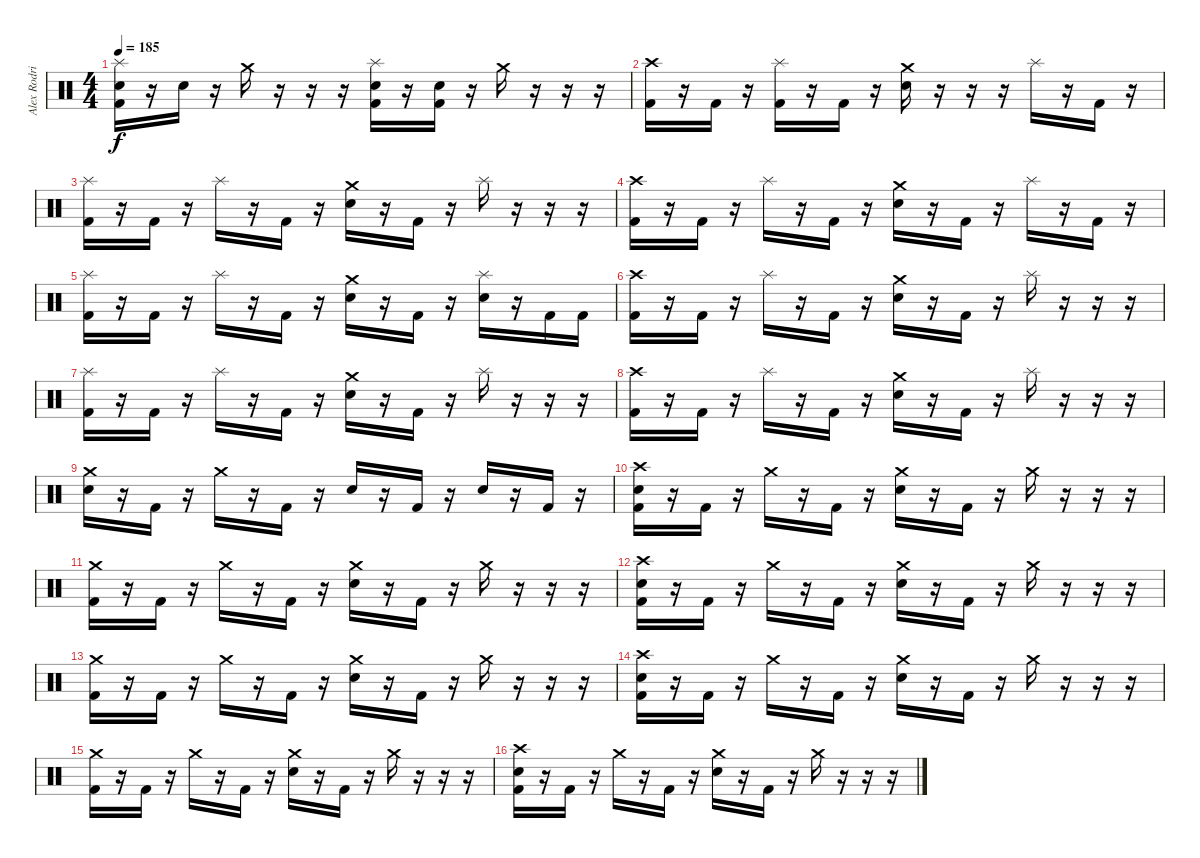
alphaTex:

\track ("Alex Rodriguez" "Alex Rodri") {instrument percussion}
\staff {score}
\articulation defaults
\ts (4 4)
\tempo 185
\clef neutral
\ks c
("Splash (hit)" "Electric Snare (hit)" "Kick (hit) 2").16{dy f} r.16 "Electric Snare (hit)".16 r.16 "Crash medium (hit)".16 r.16 r.16 r.16 ("Splash (hit)" "Electric Snare (hit)" "Kick (hit) 2").16 r.16 ("Electric Snare (hit)" "Kick (hit) 2").16 r.16 "Crash medium (hit)".16 r.16 r.16 r.16 |
("Crash high (hit)" "Kick (hit) 2").16 r.16 "Kick (hit) 2".16 r.16 ("Splash (hit)" "Kick (hit) 2").16 r.16 "Kick (hit) 2".16 r.16 ("Crash medium (hit)" "Electric Snare (hit)").16 r.16 r.16 r.16 "Splash (hit)".16 r.16 "Kick (hit) 2".16 r.16 |
("Splash (hit)" "Kick (hit) 2").16 r.16 "Kick (hit) 2".16 r.16 "Splash (hit)".16 r.16 "Kick (hit) 2".16 r.16 ("Crash medium (hit)" "Electric Snare (hit)").16 r.16 "Kick (hit) 2".16 r.16 "Splash (hit)".16 r.16 r.16 r.16 |
("Crash high (hit)" "Kick (hit) 2").16 r.16 "Kick (hit) 2".16 r.16 "Splash (hit)".16 r.16 "Kick (hit) 2".16 r.16 ("Crash medium (hit)" "Electric Snare (hit)").16 r.16 "Kick (hit) 2".16 r.16 "Splash (hit)".16 r.16 "Kick (hit) 2".16 r.16 |
("Splash (hit)" "Kick (hit) 2").16 r.16 "Kick (hit) 2".16 r.16 "Splash (hit)".16 r.16 "Kick (hit) 2".16 r.16 ("Crash medium (hit)" "Electric Snare (hit)").16 r.16 "Kick (hit) 2".16 r.16 ("Splash (hit)" "Electric Snare (hit)").16 r.16 "Kick (hit) 2".16 "Kick (hit) 2".16 |
("Crash high (hit)" "Kick (hit) 2").16 r.16 "Kick (hit) 2".16 r.16 "Splash (hit)".16 r.16 "Kick (hit) 2".16 r.16 ("Crash medium (hit)" "Electric Snare (hit)").16 r.16 "Kick (hit) 2".16 r.16 "Splash (hit)".16 r.16 r.16 r.16 |
("Splash (hit)" "Kick (hit) 2").16 r.16 "Kick (hit) 2".16 r.16 "Splash (hit)".16 r.16 "Kick (hit) 2".16 r.16 ("Crash medium (hit)" "Electric Snare (hit)").16 r.16 "Kick (hit) 2".16 r.16 "Splash (hit)".16 r.16 r.16 r.16 |
("Crash high (hit)" "Kick (hit) 2").16 r.16 "Kick (hit) 2".16 r.16 "Splash (hit)".16 r.16 "Kick (hit) 2".16 r.16 ("Crash medium (hit)" "Electric Snare (hit)").16 r.16 "Kick (hit) 2".16 r.16 "Splash (hit)".16 r.16 r.16 r.16 |
("Crash medium (hit)" "Electric Snare (hit)").16 r.16 "Kick (hit) 2".16 r.16 "Crash medium (hit)".16 r.16 "Kick (hit) 2".16 r.16 "Electric Snare (hit)".16 r.16 "Kick (hit) 2".16 r.16 "Electric Snare (hit)".16 r.16 "Kick (hit) 2".16 r.16 |
("Crash high (hit)" "Electric Snare (hit)" "Kick (hit) 2").16 r.16 "Kick (hit) 2".16 r.16 "Crash medium (hit)".16 r.16 "Kick (hit) 2".16 r.16 ("Crash medium (hit)" "Electric Snare (hit)").16 r.16 "Kick (hit) 2".16 r.16 "Crash medium (hit)".16 r.16 r.16 r.16 |
("Crash medium (hit)" "Kick (hit) 2").16 r.16 "Kick (hit) 2".16 r.16 "Crash medium (hit)".16 r.16 "Kick (hit) 2".16 r.16 ("Crash medium (hit)" "Electric Snare (hit)").16 r.16 "Kick (hit) 2".16 r.16 "Crash medium (hit)".16 r.16 r.16 r.16 |
("Crash high (hit)" "Electric Snare (hit)" "Kick (hit) 2").16 r.16 "Kick (hit) 2".16 r.16 "Crash medium (hit)".16 r.16 "Kick (hit) 2".16 r.16 ("Crash medium (hit)" "Electric Snare (hit)").16 r.16 "Kick (hit) 2".16 r.16 "Crash medium (hit)".16 r.16 r.16 r.16 |
("Crash medium (hit)" "Kick (hit) 2").16 r.16 "Kick (hit) 2".16 r.16 "Crash medium (hit)".16 r.16 "Kick (hit) 2".16 r.16 ("Crash medium (hit)" "Electric Snare (hit)").16 r.16 "Kick (hit) 2".16 r.16 "Crash medium (hit)".16 r.16 r.16 r.16 |
("Crash high (hit)" "Electric Snare (hit)" "Kick (hit) 2").16 r.16 "Kick (hit) 2".16 r.16 "Crash medium (hit)".16 r.16 "Kick (hit) 2".16 r.16 ("Crash medium (hit)" "Electric Snare (hit)").16 r.16 "Kick (hit) 2".16 r.16 "Crash medium (hit)".16 r.16 r.16 r.16 |
("Crash medium (hit)" "Kick (hit) 2").16 r.16 "Kick (hit) 2".16 r.16 "Crash medium (hit)".16 r.16 "Kick (hit) 2".16 r.16 ("Crash medium (hit)" "Electric Snare (hit)").16 r.16 "Kick (hit) 2".16 r.16 "Crash medium (hit)".16 r.16 r.16 r.16 |
("Crash high (hit)" "Electric Snare (hit)" "Kick (hit) 2").16 r.16 "Kick (hit) 2".16 r.16 "Crash medium (hit)".16 r.16 "Kick (hit) 2".16 r.16 ("Crash medium (hit)" "Electric Snare (hit)").16 r.16 "Kick (hit) 2".16 r.16 "Crash medium (hit)".16 r.16 r.16 r.16
